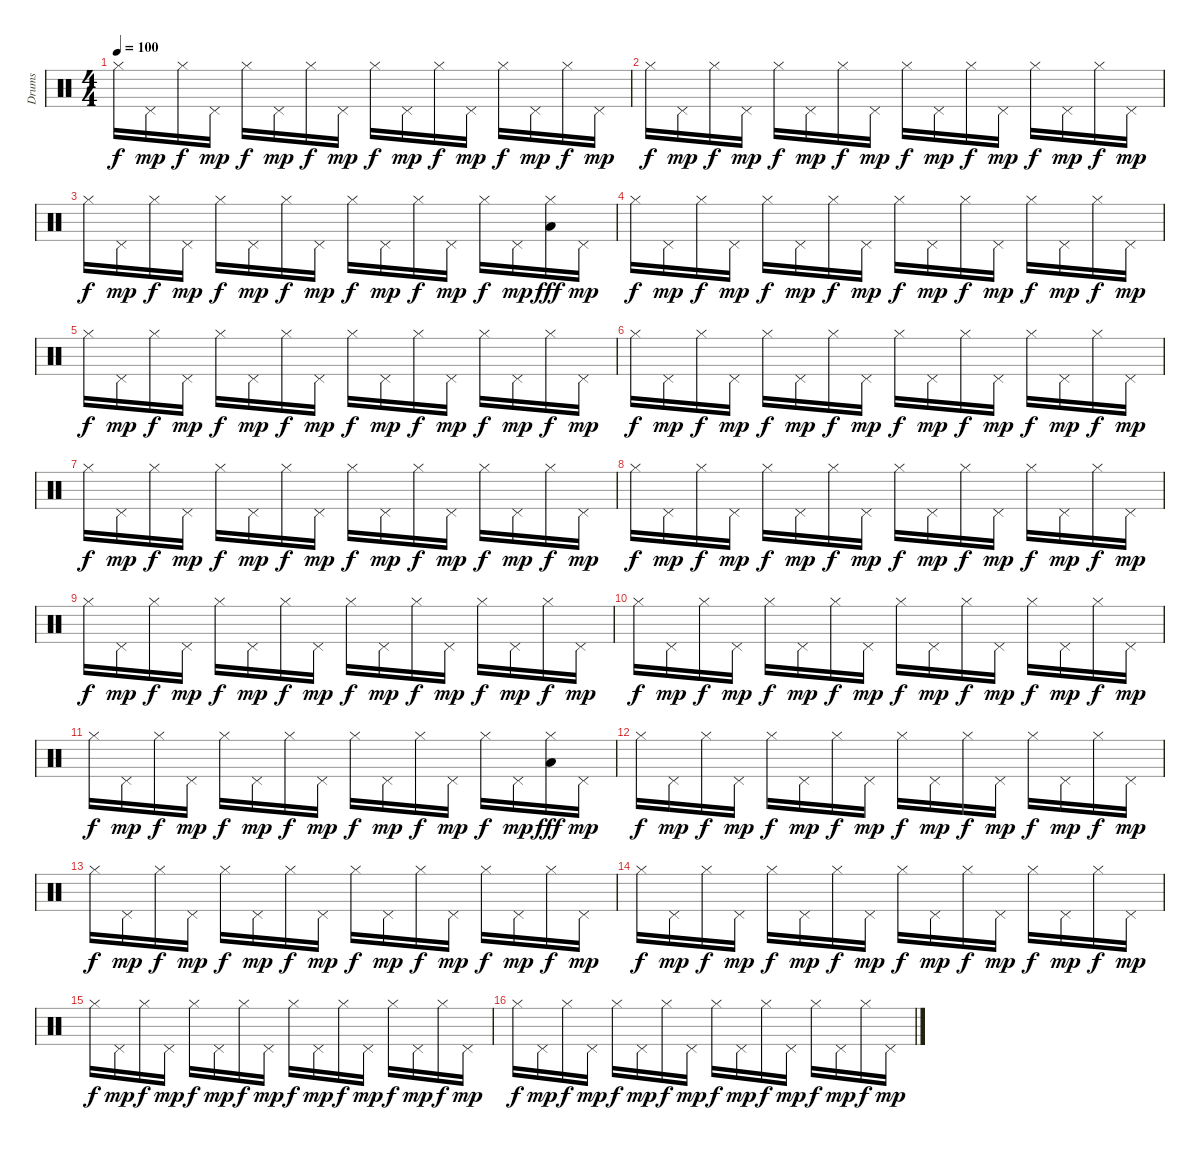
\track ("Drums" "Drums") {instrument percussion}
\staff {score}
\articulation defaults
\ts (4 4)
\tempo 100
\clef neutral
\ks c "Hi-Hat (closed)".16{dy f} "Pedal Hi-Hat (hit)".16{dy mp} "Hi-Hat (closed)".16{dy f} "Pedal Hi-Hat (hit)".16{dy mp} "Hi-Hat (closed)".16{dy f} "Pedal Hi-Hat (hit)".16{dy mp} "Hi-Hat (closed)".16{dy f} "Pedal Hi-Hat (hit)".16{dy mp} "Hi-Hat (closed)".16{dy f} "Pedal Hi-Hat (hit)".16{dy mp} "Hi-Hat (closed)".16{dy f} "Pedal Hi-Hat (hit)".16{dy mp} "Hi-Hat (closed)".16{dy f} "Pedal Hi-Hat (hit)".16{dy mp} "Hi-Hat (closed)".16{dy f} "Pedal Hi-Hat (hit)".16{dy mp}
|
"Hi-Hat (closed)".16{dy f} "Pedal Hi-Hat (hit)".16{dy mp} "Hi-Hat (closed)".16{dy f} "Pedal Hi-Hat (hit)".16{dy mp} "Hi-Hat (closed)".16{dy f} "Pedal Hi-Hat (hit)".16{dy mp} "Hi-Hat (closed)".16{dy f} "Pedal Hi-Hat (hit)".16{dy mp} "Hi-Hat (closed)".16{dy f} "Pedal Hi-Hat (hit)".16{dy mp} "Hi-Hat (closed)".16{dy f} "Pedal Hi-Hat (hit)".16{dy mp} "Hi-Hat (closed)".16{dy f} "Pedal Hi-Hat (hit)".16{dy mp} "Hi-Hat (closed)".16{dy f} "Pedal Hi-Hat (hit)".16{dy mp} |
"Hi-Hat (closed)".16{dy f} "Pedal Hi-Hat (hit)".16{dy mp} "Hi-Hat (closed)".16{dy f} "Pedal Hi-Hat (hit)".16{dy mp} "Hi-Hat (closed)".16{dy f} "Pedal Hi-Hat (hit)".16{dy mp} "Hi-Hat (closed)".16{dy f} "Pedal Hi-Hat (hit)".16{dy mp} "Hi-Hat (closed)".16{dy f} "Pedal Hi-Hat (hit)".16{dy mp} "Hi-Hat (closed)".16{dy f} "Pedal Hi-Hat (hit)".16{dy mp} "Hi-Hat (closed)".16{dy f} "Pedal Hi-Hat (hit)".16{dy mp} ("Hi-Hat (closed)" "Low Tom (hit)").16{dy fff} "Pedal Hi-Hat (hit)".16{dy mp} |
"Hi-Hat (closed)".16{dy f} "Pedal Hi-Hat (hit)".16{dy mp} "Hi-Hat (closed)".16{dy f} "Pedal Hi-Hat (hit)".16{dy mp} "Hi-Hat (closed)".16{dy f} "Pedal Hi-Hat (hit)".16{dy mp} "Hi-Hat (closed)".16{dy f} "Pedal Hi-Hat (hit)".16{dy mp} "Hi-Hat (closed)".16{dy f} "Pedal Hi-Hat (hit)".16{dy mp} "Hi-Hat (closed)".16{dy f} "Pedal Hi-Hat (hit)".16{dy mp} "Hi-Hat (closed)".16{dy f} "Pedal Hi-Hat (hit)".16{dy mp} "Hi-Hat (closed)".16{dy f} "Pedal Hi-Hat (hit)".16{dy mp} |
"Hi-Hat (closed)".16{dy f} "Pedal Hi-Hat (hit)".16{dy mp} "Hi-Hat (closed)".16{dy f} "Pedal Hi-Hat (hit)".16{dy mp} "Hi-Hat (closed)".16{dy f} "Pedal Hi-Hat (hit)".16{dy mp} "Hi-Hat (closed)".16{dy f} "Pedal Hi-Hat (hit)".16{dy mp} "Hi-Hat (closed)".16{dy f} "Pedal Hi-Hat (hit)".16{dy mp} "Hi-Hat (closed)".16{dy f} "Pedal Hi-Hat (hit)".16{dy mp} "Hi-Hat (closed)".16{dy f} "Pedal Hi-Hat (hit)".16{dy mp} "Hi-Hat (closed)".16{dy f} "Pedal Hi-Hat (hit)".16{dy mp} |
"Hi-Hat (closed)".16{dy f} "Pedal Hi-Hat (hit)".16{dy mp} "Hi-Hat (closed)".16{dy f} "Pedal Hi-Hat (hit)".16{dy mp} "Hi-Hat (closed)".16{dy f} "Pedal Hi-Hat (hit)".16{dy mp} "Hi-Hat (closed)".16{dy f} "Pedal Hi-Hat (hit)".16{dy mp} "Hi-Hat (closed)".16{dy f} "Pedal Hi-Hat (hit)".16{dy mp} "Hi-Hat (closed)".16{dy f} "Pedal Hi-Hat (hit)".16{dy mp} "Hi-Hat (closed)".16{dy f} "Pedal Hi-Hat (hit)".16{dy mp} "Hi-Hat (closed)".16{dy f} "Pedal Hi-Hat (hit)".16{dy mp} |
"Hi-Hat (closed)".16{dy f} "Pedal Hi-Hat (hit)".16{dy mp} "Hi-Hat (closed)".16{dy f} "Pedal Hi-Hat (hit)".16{dy mp} "Hi-Hat (closed)".16{dy f} "Pedal Hi-Hat (hit)".16{dy mp} "Hi-Hat (closed)".16{dy f} "Pedal Hi-Hat (hit)".16{dy mp} "Hi-Hat (closed)".16{dy f} "Pedal Hi-Hat (hit)".16{dy mp} "Hi-Hat (closed)".16{dy f} "Pedal Hi-Hat (hit)".16{dy mp} "Hi-Hat (closed)".16{dy f} "Pedal Hi-Hat (hit)".16{dy mp} "Hi-Hat (closed)".16{dy f} "Pedal Hi-Hat (hit)".16{dy mp} |
"Hi-Hat (closed)".16{dy f} "Pedal Hi-Hat (hit)".16{dy mp} "Hi-Hat (closed)".16{dy f} "Pedal Hi-Hat (hit)".16{dy mp} "Hi-Hat (closed)".16{dy f} "Pedal Hi-Hat (hit)".16{dy mp} "Hi-Hat (closed)".16{dy f} "Pedal Hi-Hat (hit)".16{dy mp} "Hi-Hat (closed)".16{dy f} "Pedal Hi-Hat (hit)".16{dy mp} "Hi-Hat (closed)".16{dy f} "Pedal Hi-Hat (hit)".16{dy mp} "Hi-Hat (closed)".16{dy f} "Pedal Hi-Hat (hit)".16{dy mp} "Hi-Hat (closed)".16{dy f} "Pedal Hi-Hat (hit)".16{dy mp} |
"Hi-Hat (closed)".16{dy f} "Pedal Hi-Hat (hit)".16{dy mp} "Hi-Hat (closed)".16{dy f} "Pedal Hi-Hat (hit)".16{dy mp} "Hi-Hat (closed)".16{dy f} "Pedal Hi-Hat (hit)".16{dy mp} "Hi-Hat (closed)".16{dy f} "Pedal Hi-Hat (hit)".16{dy mp} "Hi-Hat (closed)".16{dy f} "Pedal Hi-Hat (hit)".16{dy mp} "Hi-Hat (closed)".16{dy f} "Pedal Hi-Hat (hit)".16{dy mp} "Hi-Hat (closed)".16{dy f} "Pedal Hi-Hat (hit)".16{dy mp} "Hi-Hat (closed)".16{dy f} "Pedal Hi-Hat (hit)".16{dy mp} |
"Hi-Hat (closed)".16{dy f} "Pedal Hi-Hat (hit)".16{dy mp} "Hi-Hat (closed)".16{dy f} "Pedal Hi-Hat (hit)".16{dy mp} "Hi-Hat (closed)".16{dy f} "Pedal Hi-Hat (hit)".16{dy mp} "Hi-Hat (closed)".16{dy f} "Pedal Hi-Hat (hit)".16{dy mp} "Hi-Hat (closed)".16{dy f} "Pedal Hi-Hat (hit)".16{dy mp} "Hi-Hat (closed)".16{dy f} "Pedal Hi-Hat (hit)".16{dy mp} "Hi-Hat (closed)".16{dy f} "Pedal Hi-Hat (hit)".16{dy mp} "Hi-Hat (closed)".16{dy f} "Pedal Hi-Hat (hit)".16{dy mp} |
"Hi-Hat (closed)".16{dy f} "Pedal Hi-Hat (hit)".16{dy mp} "Hi-Hat (closed)".16{dy f} "Pedal Hi-Hat (hit)".16{dy mp} "Hi-Hat (closed)".16{dy f} "Pedal Hi-Hat (hit)".16{dy mp} "Hi-Hat (closed)".16{dy f} "Pedal Hi-Hat (hit)".16{dy mp} "Hi-Hat (closed)".16{dy f} "Pedal Hi-Hat (hit)".16{dy mp} "Hi-Hat (closed)".16{dy f} "Pedal Hi-Hat (hit)".16{dy mp} "Hi-Hat (closed)".16{dy f} "Pedal Hi-Hat (hit)".16{dy mp} ("Hi-Hat (closed)" "Low Tom (hit)").16{dy fff} "Pedal Hi-Hat (hit)".16{dy mp} |
"Hi-Hat (closed)".16{dy f} "Pedal Hi-Hat (hit)".16{dy mp} "Hi-Hat (closed)".16{dy f} "Pedal Hi-Hat (hit)".16{dy mp} "Hi-Hat (closed)".16{dy f} "Pedal Hi-Hat (hit)".16{dy mp} "Hi-Hat (closed)".16{dy f} "Pedal Hi-Hat (hit)".16{dy mp} "Hi-Hat (closed)".16{dy f} "Pedal Hi-Hat (hit)".16{dy mp} "Hi-Hat (closed)".16{dy f} "Pedal Hi-Hat (hit)".16{dy mp} "Hi-Hat (closed)".16{dy f} "Pedal Hi-Hat (hit)".16{dy mp} "Hi-Hat (closed)".16{dy f} "Pedal Hi-Hat (hit)".16{dy mp} |
"Hi-Hat (closed)".16{dy f} "Pedal Hi-Hat (hit)".16{dy mp} "Hi-Hat (closed)".16{dy f} "Pedal Hi-Hat (hit)".16{dy mp} "Hi-Hat (closed)".16{dy f} "Pedal Hi-Hat (hit)".16{dy mp} "Hi-Hat (closed)".16{dy f} "Pedal Hi-Hat (hit)".16{dy mp} "Hi-Hat (closed)".16{dy f} "Pedal Hi-Hat (hit)".16{dy mp} "Hi-Hat (closed)".16{dy f} "Pedal Hi-Hat (hit)".16{dy mp} "Hi-Hat (closed)".16{dy f} "Pedal Hi-Hat (hit)".16{dy mp} "Hi-Hat (closed)".16{dy f} "Pedal Hi-Hat (hit)".16{dy mp} |
"Hi-Hat (closed)".16{dy f} "Pedal Hi-Hat (hit)".16{dy mp} "Hi-Hat (closed)".16{dy f} "Pedal Hi-Hat (hit)".16{dy mp} "Hi-Hat (closed)".16{dy f} "Pedal Hi-Hat (hit)".16{dy mp} "Hi-Hat (closed)".16{dy f} "Pedal Hi-Hat (hit)".16{dy mp} "Hi-Hat (closed)".16{dy f} "Pedal Hi-Hat (hit)".16{dy mp} "Hi-Hat (closed)".16{dy f} "Pedal Hi-Hat (hit)".16{dy mp} "Hi-Hat (closed)".16{dy f} "Pedal Hi-Hat (hit)".16{dy mp} "Hi-Hat (closed)".16{dy f} "Pedal Hi-Hat (hit)".16{dy mp} |
"Hi-Hat (closed)".16{dy f} "Pedal Hi-Hat (hit)".16{dy mp} "Hi-Hat (closed)".16{dy f} "Pedal Hi-Hat (hit)".16{dy mp} "Hi-Hat (closed)".16{dy f} "Pedal Hi-Hat (hit)".16{dy mp} "Hi-Hat (closed)".16{dy f} "Pedal Hi-Hat (hit)".16{dy mp} "Hi-Hat (closed)".16{dy f} "Pedal Hi-Hat (hit)".16{dy mp} "Hi-Hat (closed)".16{dy f} "Pedal Hi-Hat (hit)".16{dy mp} "Hi-Hat (closed)".16{dy f} "Pedal Hi-Hat (hit)".16{dy mp} "Hi-Hat (closed)".16{dy f} "Pedal Hi-Hat (hit)".16{dy mp} |
"Hi-Hat (closed)".16{dy f} "Pedal Hi-Hat (hit)".16{dy mp} "Hi-Hat (closed)".16{dy f} "Pedal Hi-Hat (hit)".16{dy mp} "Hi-Hat (closed)".16{dy f} "Pedal Hi-Hat (hit)".16{dy mp} "Hi-Hat (closed)".16{dy f} "Pedal Hi-Hat (hit)".16{dy mp} "Hi-Hat (closed)".16{dy f} "Pedal Hi-Hat (hit)".16{dy mp} "Hi-Hat (closed)".16{dy f} "Pedal Hi-Hat (hit)".16{dy mp} "Hi-Hat (closed)".16{dy f} "Pedal Hi-Hat (hit)".16{dy mp} "Hi-Hat (closed)".16{dy f} "Pedal Hi-Hat (hit)".16{dy mp}
